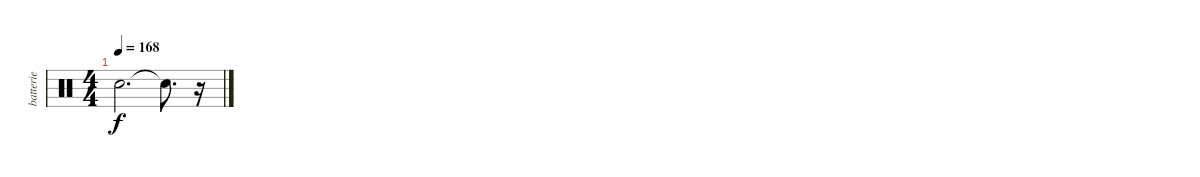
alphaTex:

\track ("batterie" "batterie") {instrument percussion}
\staff {score}
\articulation defaults
\ts (4 4)
\tempo 168
\clef neutral
\ks c "Snare (hit)"{t}.2{d dy f} "Snare (hit)"{t}.8{d}
r.16
